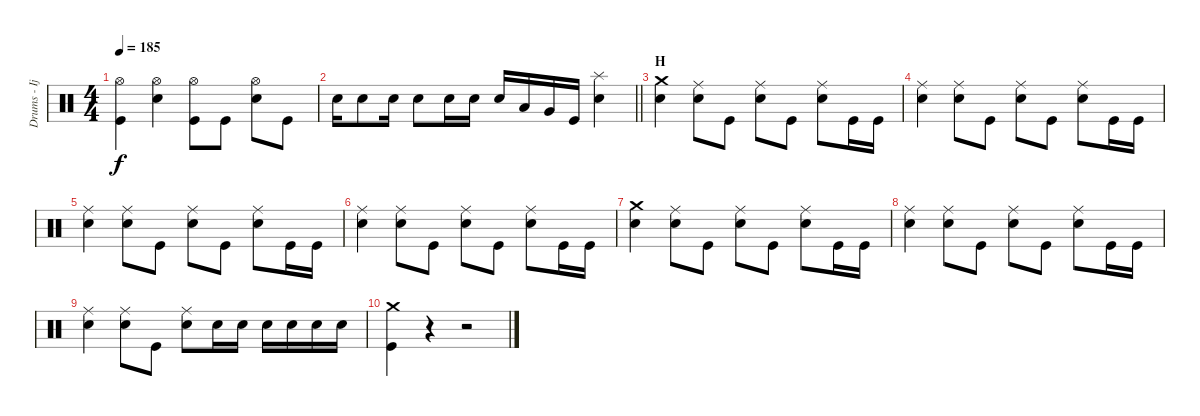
\track ("Drums - Ijichi" "Drums - Ij") {instrument percussion}
\staff {score}
\articulation defaults
\ts (4 4)
\tempo 185
\clef neutral
\ks c
("Hi-Hat (open)" "Kick (hit)").4{dy f} ("Hi-Hat (open)" "Electric Snare (hit)").4 ("Hi-Hat (open)" "Kick (hit)").8 "Kick (hit)".8 ("Hi-Hat (open)" "Electric Snare (hit)").8 "Kick (hit)".8 |
\barLineRight lightlight "Electric Snare (hit)".16 "Electric Snare (hit)".8 "Electric Snare (hit)".16 "Electric Snare (hit)".8 "Electric Snare (hit)".16 "Electric Snare (hit)".16 "Electric Snare (hit)".16 "Low Tom (hit)".16 "Very Low Tom (hit)".16 "Kick (hit)".16
("Splash (hit)" "Electric Snare (hit)").4 |
\section ("" "H")
("Crash medium (hit)" "Electric Snare (hit)").4 ("Ride (middle)" "Electric Snare (hit)").8 "Kick (hit)".8 ("Ride (middle)" "Electric Snare (hit)").8 "Kick (hit)".8 ("Ride (middle)" "Electric Snare (hit)").8 "Kick (hit)".16 "Kick (hit)".16 |
("Ride (middle)" "Electric Snare (hit)").4 ("Ride (middle)" "Electric Snare (hit)").8 "Kick (hit)".8 ("Ride (middle)" "Electric Snare (hit)").8 "Kick (hit)".8 ("Ride (middle)" "Electric Snare (hit)").8 "Kick (hit)".16 "Kick (hit)".16 |
("Ride (middle)" "Electric Snare (hit)").4 ("Ride (middle)" "Electric Snare (hit)").8 "Kick (hit)".8 ("Ride (middle)" "Electric Snare (hit)").8 "Kick (hit)".8 ("Ride (middle)" "Electric Snare (hit)").8 "Kick (hit)".16 "Kick (hit)".16 |
("Ride (middle)" "Electric Snare (hit)").4 ("Ride (middle)" "Electric Snare (hit)").8 "Kick (hit)".8 ("Ride (middle)" "Electric Snare (hit)").8 "Kick (hit)".8 ("Ride (middle)" "Electric Snare (hit)").8 "Kick (hit)".16 "Kick (hit)".16 |
("Crash medium (hit)" "Electric Snare (hit)").4 ("Ride (middle)" "Electric Snare (hit)").8 "Kick (hit)".8 ("Ride (middle)" "Electric Snare (hit)").8 "Kick (hit)".8 ("Ride (middle)" "Electric Snare (hit)").8 "Kick (hit)".16 "Kick (hit)".16 |
("Ride (middle)" "Electric Snare (hit)").4 ("Ride (middle)" "Electric Snare (hit)").8 "Kick (hit)".8 ("Ride (middle)" "Electric Snare (hit)").8 "Kick (hit)".8 ("Ride (middle)" "Electric Snare (hit)").8 "Kick (hit)".16 "Kick (hit)".16 |
("Ride (middle)" "Electric Snare (hit)").4 ("Ride (middle)" "Electric Snare (hit)").8 "Kick (hit)".8 ("Ride (middle)" "Electric Snare (hit)").8 "Electric Snare (hit)".16 "Electric Snare (hit)".16 "Electric Snare (hit)".16 "Electric Snare (hit)".16 "Electric Snare (hit)".16 "Electric Snare (hit)".16 |
("Crash medium (hit)" "Kick (hit)").4 r.4 r.2
